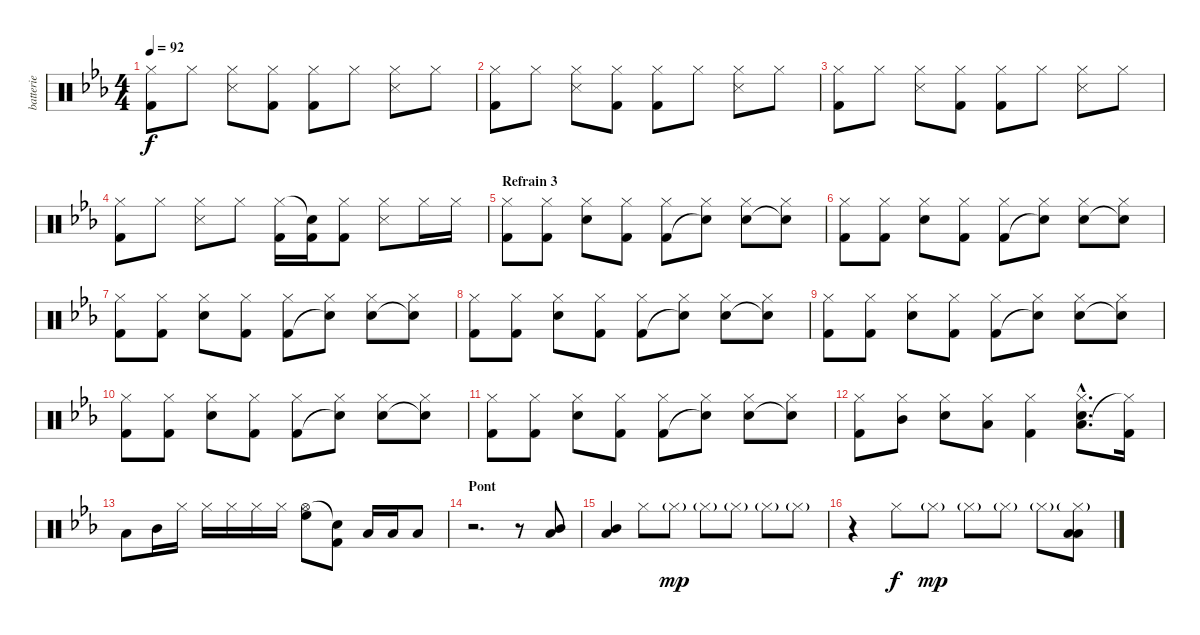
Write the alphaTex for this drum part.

\track ("batterie" "batterie") {instrument percussion}
\staff {score}
\articulation defaults
\ts (4 4)
\tempo 92
\clef neutral
\ks eb
("Kick (hit) 2" "Hi-Hat (closed)").8{dy f} "Hi-Hat (closed)".8 ("Snare (side stick) 3" "Hi-Hat (closed)").8 ("Kick (hit) 2" "Hi-Hat (closed)").8 ("Kick (hit) 2" "Hi-Hat (closed)").8 "Hi-Hat (closed)".8 ("Snare (side stick) 3" "Hi-Hat (closed)").8 "Hi-Hat (closed)".8 |
("Kick (hit) 2" "Hi-Hat (closed)").8 "Hi-Hat (closed)".8 ("Snare (side stick) 3" "Hi-Hat (closed)").8 ("Kick (hit) 2" "Hi-Hat (closed)").8 ("Kick (hit) 2" "Hi-Hat (closed)").8 "Hi-Hat (closed)".8 ("Snare (side stick) 3" "Hi-Hat (closed)").8 "Hi-Hat (closed)".8 |
("Kick (hit) 2" "Hi-Hat (closed)").8 "Hi-Hat (closed)".8 ("Snare (side stick) 3" "Hi-Hat (closed)").8 ("Kick (hit) 2" "Hi-Hat (closed)").8 ("Kick (hit) 2" "Hi-Hat (closed)").8 "Hi-Hat (closed)".8 ("Snare (side stick) 3" "Hi-Hat (closed)").8 "Hi-Hat (closed)".8 |
("Kick (hit) 2" "Hi-Hat (closed)").8 "Hi-Hat (closed)".8 ("Snare (side stick) 3" "Hi-Hat (closed)").8 "Hi-Hat (closed)".8 ("Kick (hit) 2" "Hi-Hat (closed)").16 ("Kick (hit) 2" "Snare (hit)"{t}).16 ("Kick (hit) 2" "Hi-Hat (closed)").8 ("Snare (side stick) 3" "Hi-Hat (closed)").8 "Hi-Hat (closed)".16 "Hi-Hat (closed)".16 |
\section ("" "Refrain 3")
("Kick (hit) 2" "Hi-Hat (closed)").8 ("Kick (hit) 2" "Hi-Hat (closed)").8 ("Snare (hit) 2" "Hi-Hat (closed)").8 ("Kick (hit) 2" "Hi-Hat (closed)").8 ("Kick (hit) 2" "Hi-Hat (closed)").8 ("Snare (hit)"{t} "Hi-Hat (closed)").8 ("Snare (hit) 2" "Hi-Hat (closed)").8 ("Snare (hit)"{t} "Hi-Hat (closed)").8 |
("Kick (hit) 2" "Hi-Hat (closed)").8 ("Kick (hit) 2" "Hi-Hat (closed)").8 ("Snare (hit) 2" "Hi-Hat (closed)").8 ("Kick (hit) 2" "Hi-Hat (closed)").8 ("Kick (hit) 2" "Hi-Hat (closed)").8 ("Snare (hit)"{t} "Hi-Hat (closed)").8 ("Snare (hit) 2" "Hi-Hat (closed)").8 ("Snare (hit)"{t} "Hi-Hat (closed)").8 |
("Kick (hit) 2" "Hi-Hat (closed)").8 ("Kick (hit) 2" "Hi-Hat (closed)").8 ("Snare (hit) 2" "Hi-Hat (closed)").8 ("Kick (hit) 2" "Hi-Hat (closed)").8 ("Kick (hit) 2" "Hi-Hat (closed)").8 ("Snare (hit)"{t} "Hi-Hat (closed)").8 ("Snare (hit) 2" "Hi-Hat (closed)").8 ("Snare (hit)"{t} "Hi-Hat (closed)").8 |
("Kick (hit) 2" "Hi-Hat (closed)").8 ("Kick (hit) 2" "Hi-Hat (closed)").8 ("Snare (hit) 2" "Hi-Hat (closed)").8 ("Kick (hit) 2" "Hi-Hat (closed)").8 ("Kick (hit) 2" "Hi-Hat (closed)").8 ("Snare (hit)"{t} "Hi-Hat (closed)").8 ("Snare (hit) 2" "Hi-Hat (closed)").8 ("Snare (hit)"{t} "Hi-Hat (closed)").8 |
("Kick (hit) 2" "Hi-Hat (closed)").8 ("Kick (hit) 2" "Hi-Hat (closed)").8 ("Snare (hit) 2" "Hi-Hat (closed)").8 ("Kick (hit) 2" "Hi-Hat (closed)").8 ("Kick (hit) 2" "Hi-Hat (closed)").8 ("Snare (hit)"{t} "Hi-Hat (closed)").8 ("Snare (hit) 2" "Hi-Hat (closed)").8 ("Snare (hit)"{t} "Hi-Hat (closed)").8 |
("Kick (hit) 2" "Hi-Hat (closed)").8 ("Kick (hit) 2" "Hi-Hat (closed)").8 ("Snare (hit) 2" "Hi-Hat (closed)").8 ("Kick (hit) 2" "Hi-Hat (closed)").8 ("Kick (hit) 2" "Hi-Hat (closed)").8 ("Snare (hit)"{t} "Hi-Hat (closed)").8 ("Snare (hit) 2" "Hi-Hat (closed)").8 ("Snare (hit)"{t} "Hi-Hat (closed)").8 |
("Kick (hit) 2" "Hi-Hat (closed)").8 ("Kick (hit) 2" "Hi-Hat (closed)").8 ("Snare (hit) 2" "Hi-Hat (closed)").8 ("Kick (hit) 2" "Hi-Hat (closed)").8 ("Kick (hit) 2" "Hi-Hat (closed)").8 ("Snare (hit)"{t} "Hi-Hat (closed)").8 ("Snare (hit) 2" "Hi-Hat (closed)").8 ("Snare (hit)"{t} "Hi-Hat (closed)").8 |
("Kick (hit) 2" "Hi-Hat (closed)").8 ("Mid Tom (hit)" "Hi-Hat (closed)").8 ("Snare (hit) 2" "Hi-Hat (closed)").8 ("Low Tom (hit)" "Hi-Hat (closed)").8 ("Kick (hit) 2" "Hi-Hat (closed)").4 ("Low Floor Tom (hit)"{hac} "Hi-Hat (closed)"{hac} "Snare (hit) 2"{hac}).8{d} ("Hi-Hat (closed)"{t} "Kick (hit) 2").16 |
"Low Floor Tom (hit)".8 "Mid Tom (hit)".16 "Hi-Hat (closed)".16 "Hi-Hat (closed)".16 "Hi-Hat (closed)".16 "Hi-Hat (closed)".16 "Hi-Hat (closed)".16 ("Hi-Hat (open)" "High Floor Tom (hit)").8 ("Snare (hit)"{t} "Kick (hit) 2").8 "Low Floor Tom (hit)".16 "Low Floor Tom (hit)".16 "Low Floor Tom (hit)".8 |
\section ("" "Pont")
r.2{d} r.8 ("Mid Tom (hit)" "Low Floor Tom (hit)").8 |
("Mid Tom (hit)" "Low Floor Tom (hit)").4 "Hi-Hat (closed)".8 "Hi-Hat (closed)"{g}.8{dy mp} "Hi-Hat (closed)"{g}.8 "Hi-Hat (closed)"{g}.8 "Hi-Hat (closed)"{g}.8 "Hi-Hat (closed)"{g}.8 |
r.4 "Hi-Hat (closed)".8{dy f} "Hi-Hat (closed)"{g}.8{dy mp} "Hi-Hat (closed)"{g}.8 "Hi-Hat (closed)"{g}.8 "Hi-Hat (closed)"{g}.8 ("Low Tom (hit)" "Low Floor Tom (hit)" "Hi-Hat (closed)"{g}).8
